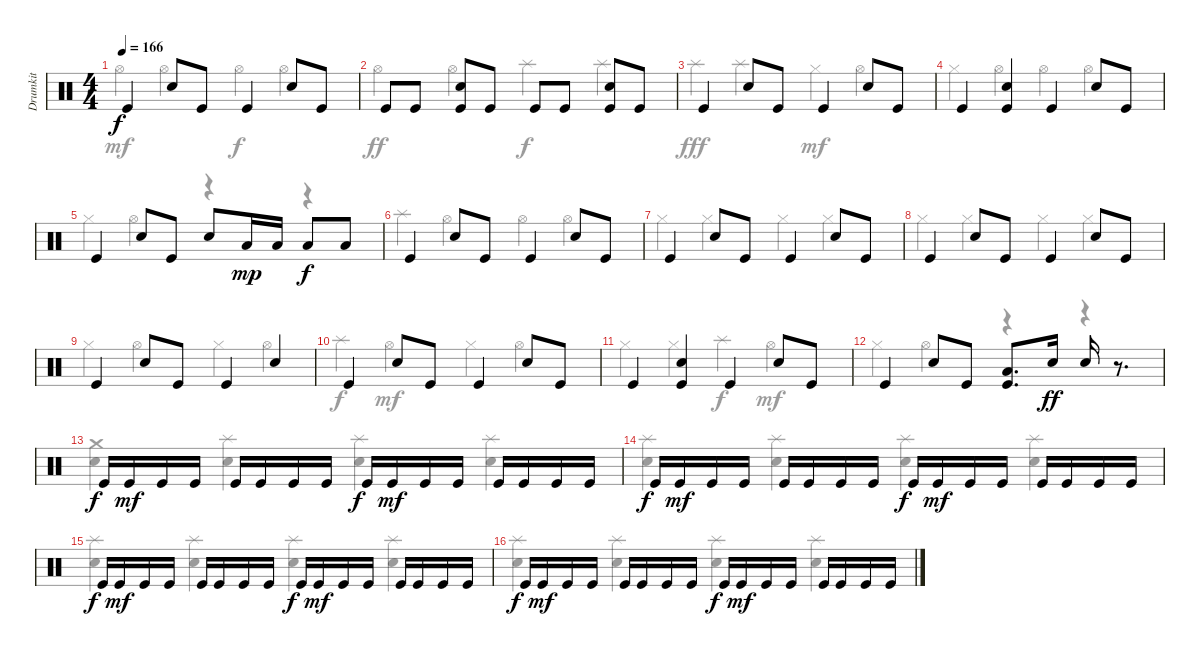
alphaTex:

\track ("Drumkit" "Drumkit") {instrument percussion}
\staff {score}
\articulation defaults
\voice
\ts (4 4)
\tempo 166
\clef neutral
\ks c "Kick (hit)".4{dy f} "Snare (hit) 2".8 "Kick (hit)".8 "Kick (hit)".4 "Snare (hit) 2".8 "Kick (hit)".8
|
"Kick (hit)".8 "Kick (hit)".8 ("Snare (hit) 2" "Kick (hit)").8 "Kick (hit)".8 "Kick (hit)".8 "Kick (hit)".8 ("Snare (hit) 2" "Kick (hit)").8 "Kick (hit)".8 |
"Kick (hit)".4 "Snare (hit) 2".8 "Kick (hit)".8 "Kick (hit)".4 "Snare (hit) 2".8 "Kick (hit)".8 |
"Kick (hit)".4 ("Kick (hit)" "Snare (hit) 2").4 "Kick (hit)".4 "Snare (hit) 2".8 "Kick (hit)".8 |
"Kick (hit)".4 "Snare (hit) 2".8 "Kick (hit)".8 "Snare (hit) 2".8 "Low Tom (hit)".16{dy mp} "Low Tom (hit)".16 "Low Floor Tom (hit)".8{dy f} "Low Floor Tom (hit)".8 |
"Kick (hit)".4 "Snare (hit) 2".8 "Kick (hit)".8 "Kick (hit)".4 "Snare (hit) 2".8 "Kick (hit)".8 |
"Kick (hit)".4 "Snare (hit) 2".8 "Kick (hit)".8 "Kick (hit)".4 "Snare (hit) 2".8 "Kick (hit)".8 |
"Kick (hit)".4 "Snare (hit) 2".8 "Kick (hit)".8 "Kick (hit)".4 "Snare (hit) 2".8 "Kick (hit)".8 |
"Kick (hit)".4 "Snare (hit) 2".8 "Kick (hit)".8 "Kick (hit)".4 "Snare (hit) 2".4 |
"Kick (hit)".4 "Snare (hit) 2".8 "Kick (hit)".8 "Kick (hit)".4 "Snare (hit) 2".8 "Kick (hit)".8 |
"Kick (hit)".4 ("Kick (hit)" "Snare (hit) 2").4 "Kick (hit)".4 "Snare (hit) 2".8 "Kick (hit)".8 |
"Kick (hit)".4 "Snare (hit) 2".8 "Kick (hit)".8 ("Kick (hit)" "Low Floor Tom (hit)").8{d} "Snare (hit) 2".16{dy ff} "Snare (hit) 2".16 r.8{d} |
"Kick (hit)".16{dy f} "Kick (hit)".16{dy mf} "Kick (hit)".16 "Kick (hit)".16 "Kick (hit)".16 "Kick (hit)".16 "Kick (hit)".16 "Kick (hit)".16 "Kick (hit)".16{dy f} "Kick (hit)".16{dy mf} "Kick (hit)".16 "Kick (hit)".16 "Kick (hit)".16 "Kick (hit)".16 "Kick (hit)".16 "Kick (hit)".16 |
"Kick (hit)".16{dy f} "Kick (hit)".16{dy mf} "Kick (hit)".16 "Kick (hit)".16 "Kick (hit)".16 "Kick (hit)".16 "Kick (hit)".16 "Kick (hit)".16 "Kick (hit)".16{dy f} "Kick (hit)".16{dy mf} "Kick (hit)".16 "Kick (hit)".16 "Kick (hit)".16 "Kick (hit)".16 "Kick (hit)".16 "Kick (hit)".16 |
"Kick (hit)".16{dy f} "Kick (hit)".16{dy mf} "Kick (hit)".16 "Kick (hit)".16 "Kick (hit)".16 "Kick (hit)".16 "Kick (hit)".16 "Kick (hit)".16 "Kick (hit)".16{dy f} "Kick (hit)".16{dy mf} "Kick (hit)".16 "Kick (hit)".16 "Kick (hit)".16 "Kick (hit)".16 "Kick (hit)".16 "Kick (hit)".16 |
"Kick (hit)".16{dy f} "Kick (hit)".16{dy mf} "Kick (hit)".16 "Kick (hit)".16 "Kick (hit)".16 "Kick (hit)".16 "Kick (hit)".16 "Kick (hit)".16 "Kick (hit)".16{dy f} "Kick (hit)".16{dy mf} "Kick (hit)".16 "Kick (hit)".16 "Kick (hit)".16 "Kick (hit)".16 "Kick (hit)".16 "Kick (hit)".16
\voice
\clef neutral
\ottava regular
\simile none
\ks c "Hi-Hat (open)".4{dy mf} "Hi-Hat (open)".4 "Hi-Hat (open)".4{dy f} "Hi-Hat (open)".4
|
"Hi-Hat (open)".4{dy ff} "Hi-Hat (open)".4 "Splash (hit)".4{dy f} "Splash (hit)".4 |
"Splash (hit)".4{dy fff} "Splash (hit)".4 "Hi-Hat (closed)".4{dy mf} "Hi-Hat (open)".4 |
"Hi-Hat (closed)".4 "Hi-Hat (open)".4 "Hi-Hat (open)".4 "Hi-Hat (open)".4 |
"Hi-Hat (closed)".4 "Hi-Hat (open)".4 r.4 r.4 |
"Splash (hit)".4 "Hi-Hat (open)".4 "Hi-Hat (open)".4 "Hi-Hat (open)".4 |
"Hi-Hat (closed)".4 "Hi-Hat (closed)".4 "Hi-Hat (closed)".4 "Hi-Hat (closed)".4 |
"Hi-Hat (closed)".4 "Hi-Hat (closed)".4 "Hi-Hat (closed)".4 "Hi-Hat (closed)".4 |
"Hi-Hat (closed)".4 "Hi-Hat (open)".4 "Hi-Hat (closed)".4 "Hi-Hat (open)".4 |
"Splash (hit)".4{dy f} "Hi-Hat (open)".4{dy mf} "Hi-Hat (closed)".4 "Hi-Hat (open)".4 |
"Hi-Hat (closed)".4 "Hi-Hat (closed)".4 "Splash (hit)".4{dy f} "Hi-Hat (open)".4{dy mf} |
"Hi-Hat (closed)".4 "Hi-Hat (open)".4 r.4 r.4 |
("Snare (hit) 2" "Crash medium (hit)").4{dy f} ("Snare (hit) 2" "Splash (hit)").4 ("Snare (hit) 2" "Splash (hit)").4 ("Snare (hit) 2" "Splash (hit)").4 |
("Snare (hit) 2" "Splash (hit)").4 ("Snare (hit) 2" "Splash (hit)").4 ("Snare (hit) 2" "Splash (hit)").4 ("Snare (hit) 2" "Splash (hit)").4 |
("Snare (hit) 2" "Splash (hit)").4 ("Snare (hit) 2" "Splash (hit)").4 ("Snare (hit) 2" "Splash (hit)").4 ("Snare (hit) 2" "Splash (hit)").4 |
("Snare (hit) 2" "Splash (hit)").4 ("Snare (hit) 2" "Splash (hit)").4 ("Snare (hit) 2" "Splash (hit)").4 ("Snare (hit) 2" "Splash (hit)").4
